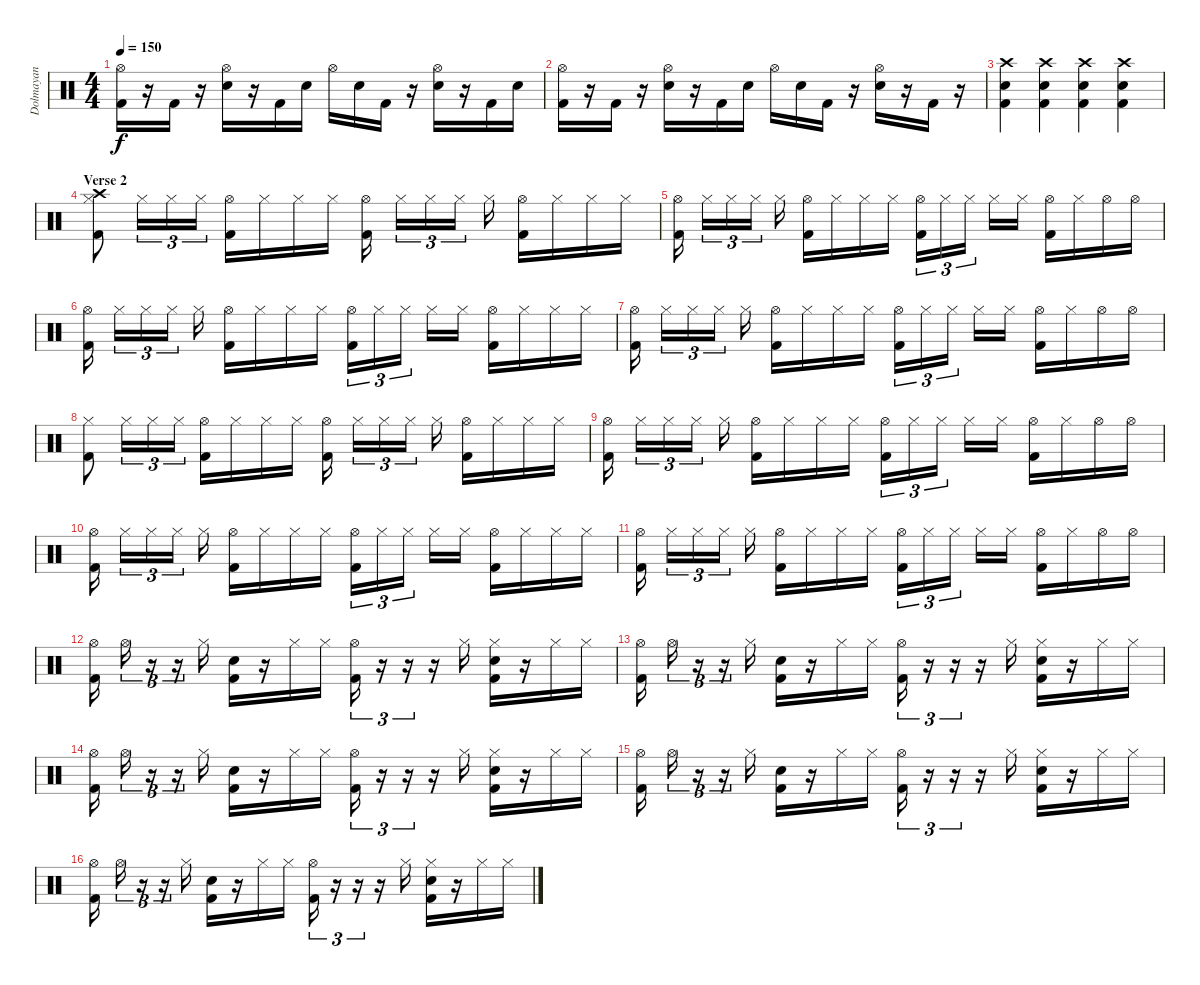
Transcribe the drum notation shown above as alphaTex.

\track ("Dolmayan" "Dolmayan") {instrument percussion}
\staff {score}
\articulation defaults
\ts (4 4)
\tempo 150
\clef neutral
\ks c
("Hi-Hat (open)" "Kick (hit) 2").16{dy f} r.16 "Kick (hit) 2".16 r.16 ("Hi-Hat (open)" "Electric Snare (hit)").16 r.16 "Kick (hit) 2".16 "Electric Snare (hit)".16 "Hi-Hat (open)".16 "Electric Snare (hit)".16 "Kick (hit) 2".16 r.16 ("Hi-Hat (open)" "Electric Snare (hit)").16 r.16 "Kick (hit) 2".16 "Electric Snare (hit)".16 |
("Hi-Hat (open)" "Kick (hit) 2").16 r.16 "Kick (hit) 2".16 r.16 ("Hi-Hat (open)" "Electric Snare (hit)").16 r.16 "Kick (hit) 2".16 "Electric Snare (hit)".16 "Hi-Hat (open)".16 "Electric Snare (hit)".16 "Kick (hit) 2".16 r.16 ("Hi-Hat (open)" "Electric Snare (hit)").16 r.16 "Kick (hit) 2".16 r.16 |
("Crash high (hit)" "Electric Snare (hit)" "Kick (hit) 2").4 ("Crash high (hit)" "Electric Snare (hit)" "Kick (hit) 2").4 ("Crash high (hit)" "Electric Snare (hit)" "Kick (hit) 2").4 ("Crash high (hit)" "Electric Snare (hit)" "Kick (hit) 2").4 |
\section ("" "Verse 2")
("Crash high (hit)" "Hi-Hat (closed)" "Kick (hit) 2").8 "Hi-Hat (closed)".16{tu (3 2)} "Hi-Hat (closed)".16{tu (3 2)} "Hi-Hat (closed)".16{tu (3 2)} ("Hi-Hat (open)" "Kick (hit) 2").16 "Hi-Hat (closed)".16 "Hi-Hat (closed)".16 "Hi-Hat (closed)".16 ("Hi-Hat (open)" "Kick (hit) 2").16 "Hi-Hat (closed)".16{tu (3 2)} "Hi-Hat (closed)".16{tu (3 2)} "Hi-Hat (closed)".16{tu (3 2)} "Hi-Hat (closed)".16 ("Hi-Hat (open)" "Kick (hit) 2").16 "Hi-Hat (closed)".16 "Hi-Hat (closed)".16 "Hi-Hat (closed)".16 |
("Hi-Hat (open)" "Kick (hit) 2").16 "Hi-Hat (closed)".16{tu (3 2)} "Hi-Hat (closed)".16{tu (3 2)} "Hi-Hat (closed)".16{tu (3 2)} "Hi-Hat (closed)".16 ("Hi-Hat (open)" "Kick (hit) 2").16 "Hi-Hat (closed)".16 "Hi-Hat (closed)".16 "Hi-Hat (closed)".16 ("Hi-Hat (open)" "Kick (hit) 2").16{tu (3 2)} "Hi-Hat (closed)".16{tu (3 2)} "Hi-Hat (closed)".16{tu (3 2)} "Hi-Hat (closed)".16 "Hi-Hat (closed)".16 ("Hi-Hat (open)" "Kick (hit) 2").16 "Hi-Hat (closed)".16 "Hi-Hat (open)".16 "Hi-Hat (open)".16 |
("Hi-Hat (open)" "Kick (hit) 2").16 "Hi-Hat (closed)".16{tu (3 2)} "Hi-Hat (closed)".16{tu (3 2)} "Hi-Hat (closed)".16{tu (3 2)} "Hi-Hat (closed)".16 ("Hi-Hat (open)" "Kick (hit) 2").16 "Hi-Hat (closed)".16 "Hi-Hat (closed)".16 "Hi-Hat (closed)".16 ("Hi-Hat (open)" "Kick (hit) 2").16{tu (3 2)} "Hi-Hat (closed)".16{tu (3 2)} "Hi-Hat (closed)".16{tu (3 2)} "Hi-Hat (closed)".16 "Hi-Hat (closed)".16 ("Hi-Hat (open)" "Kick (hit) 2").16 "Hi-Hat (closed)".16 "Hi-Hat (closed)".16 "Hi-Hat (closed)".16 |
("Hi-Hat (open)" "Kick (hit) 2").16 "Hi-Hat (closed)".16{tu (3 2)} "Hi-Hat (closed)".16{tu (3 2)} "Hi-Hat (closed)".16{tu (3 2)} "Hi-Hat (closed)".16 ("Hi-Hat (open)" "Kick (hit) 2").16 "Hi-Hat (closed)".16 "Hi-Hat (closed)".16 "Hi-Hat (closed)".16 ("Hi-Hat (open)" "Kick (hit) 2").16{tu (3 2)} "Hi-Hat (closed)".16{tu (3 2)} "Hi-Hat (closed)".16{tu (3 2)} "Hi-Hat (closed)".16 "Hi-Hat (closed)".16 ("Hi-Hat (open)" "Kick (hit) 2").16 "Hi-Hat (closed)".16 "Hi-Hat (open)".16 "Hi-Hat (open)".16 |
("Hi-Hat (closed)" "Kick (hit) 2").8 "Hi-Hat (closed)".16{tu (3 2)} "Hi-Hat (closed)".16{tu (3 2)} "Hi-Hat (closed)".16{tu (3 2)} ("Hi-Hat (open)" "Kick (hit) 2").16 "Hi-Hat (closed)".16 "Hi-Hat (closed)".16 "Hi-Hat (closed)".16 ("Hi-Hat (open)" "Kick (hit) 2").16 "Hi-Hat (closed)".16{tu (3 2)} "Hi-Hat (closed)".16{tu (3 2)} "Hi-Hat (closed)".16{tu (3 2)} "Hi-Hat (closed)".16 ("Hi-Hat (open)" "Kick (hit) 2").16 "Hi-Hat (closed)".16 "Hi-Hat (closed)".16 "Hi-Hat (closed)".16 |
("Hi-Hat (open)" "Kick (hit) 2").16 "Hi-Hat (closed)".16{tu (3 2)} "Hi-Hat (closed)".16{tu (3 2)} "Hi-Hat (closed)".16{tu (3 2)} "Hi-Hat (closed)".16 ("Hi-Hat (open)" "Kick (hit) 2").16 "Hi-Hat (closed)".16 "Hi-Hat (closed)".16 "Hi-Hat (closed)".16 ("Hi-Hat (open)" "Kick (hit) 2").16{tu (3 2)} "Hi-Hat (closed)".16{tu (3 2)} "Hi-Hat (closed)".16{tu (3 2)} "Hi-Hat (closed)".16 "Hi-Hat (closed)".16 ("Hi-Hat (open)" "Kick (hit) 2").16 "Hi-Hat (closed)".16 "Hi-Hat (open)".16 "Hi-Hat (open)".16 |
("Hi-Hat (open)" "Kick (hit) 2").16 "Hi-Hat (closed)".16{tu (3 2)} "Hi-Hat (closed)".16{tu (3 2)} "Hi-Hat (closed)".16{tu (3 2)} "Hi-Hat (closed)".16 ("Hi-Hat (open)" "Kick (hit) 2").16 "Hi-Hat (closed)".16 "Hi-Hat (closed)".16 "Hi-Hat (closed)".16 ("Hi-Hat (open)" "Kick (hit) 2").16{tu (3 2)} "Hi-Hat (closed)".16{tu (3 2)} "Hi-Hat (closed)".16{tu (3 2)} "Hi-Hat (closed)".16 "Hi-Hat (closed)".16 ("Hi-Hat (open)" "Kick (hit) 2").16 "Hi-Hat (closed)".16 "Hi-Hat (closed)".16 "Hi-Hat (closed)".16 |
("Hi-Hat (open)" "Kick (hit) 2").16 "Hi-Hat (closed)".16{tu (3 2)} "Hi-Hat (closed)".16{tu (3 2)} "Hi-Hat (closed)".16{tu (3 2)} "Hi-Hat (closed)".16 ("Hi-Hat (open)" "Kick (hit) 2").16 "Hi-Hat (closed)".16 "Hi-Hat (closed)".16 "Hi-Hat (closed)".16 ("Hi-Hat (open)" "Kick (hit) 2").16{tu (3 2)} "Hi-Hat (closed)".16{tu (3 2)} "Hi-Hat (closed)".16{tu (3 2)} "Hi-Hat (closed)".16 "Hi-Hat (closed)".16 ("Hi-Hat (open)" "Kick (hit) 2").16 "Hi-Hat (closed)".16 "Hi-Hat (open)".16 "Hi-Hat (open)".16 |
("Hi-Hat (open)" "Kick (hit) 2").16 "Hi-Hat (open)".16{tu (3 2)} r.16{tu (3 2)} r.16{tu (3 2)} "Hi-Hat (closed)".16 ("Electric Snare (hit)" "Kick (hit) 2").16 r.16 "Hi-Hat (closed)".16 "Hi-Hat (closed)".16 ("Hi-Hat (open)" "Kick (hit) 2").16{tu (3 2)} r.16{tu (3 2)} r.16{tu (3 2)} r.16 "Hi-Hat (closed)".16 ("Hi-Hat (closed)" "Electric Snare (hit)" "Kick (hit) 2").16 r.16 "Hi-Hat (closed)".16 "Hi-Hat (closed)".16 |
("Hi-Hat (open)" "Kick (hit) 2").16 "Hi-Hat (open)".16{tu (3 2)} r.16{tu (3 2)} r.16{tu (3 2)} "Hi-Hat (closed)".16 ("Electric Snare (hit)" "Kick (hit) 2").16 r.16 "Hi-Hat (closed)".16 "Hi-Hat (closed)".16 ("Hi-Hat (open)" "Kick (hit) 2").16{tu (3 2)} r.16{tu (3 2)} r.16{tu (3 2)} r.16 "Hi-Hat (closed)".16 ("Hi-Hat (closed)" "Electric Snare (hit)" "Kick (hit) 2").16 r.16 "Hi-Hat (closed)".16 "Hi-Hat (closed)".16 |
("Hi-Hat (open)" "Kick (hit) 2").16 "Hi-Hat (open)".16{tu (3 2)} r.16{tu (3 2)} r.16{tu (3 2)} "Hi-Hat (closed)".16 ("Electric Snare (hit)" "Kick (hit) 2").16 r.16 "Hi-Hat (closed)".16 "Hi-Hat (closed)".16 ("Hi-Hat (open)" "Kick (hit) 2").16{tu (3 2)} r.16{tu (3 2)} r.16{tu (3 2)} r.16 "Hi-Hat (closed)".16 ("Hi-Hat (closed)" "Electric Snare (hit)" "Kick (hit) 2").16 r.16 "Hi-Hat (closed)".16 "Hi-Hat (closed)".16 |
("Hi-Hat (open)" "Kick (hit) 2").16 "Hi-Hat (open)".16{tu (3 2)} r.16{tu (3 2)} r.16{tu (3 2)} "Hi-Hat (closed)".16 ("Electric Snare (hit)" "Kick (hit) 2").16 r.16 "Hi-Hat (closed)".16 "Hi-Hat (closed)".16 ("Hi-Hat (open)" "Kick (hit) 2").16{tu (3 2)} r.16{tu (3 2)} r.16{tu (3 2)} r.16 "Hi-Hat (closed)".16 ("Hi-Hat (closed)" "Electric Snare (hit)" "Kick (hit) 2").16 r.16 "Hi-Hat (closed)".16 "Hi-Hat (closed)".16 |
("Hi-Hat (open)" "Kick (hit) 2").16 "Hi-Hat (open)".16{tu (3 2)} r.16{tu (3 2)} r.16{tu (3 2)} "Hi-Hat (closed)".16 ("Electric Snare (hit)" "Kick (hit) 2").16 r.16 "Hi-Hat (closed)".16 "Hi-Hat (closed)".16 ("Hi-Hat (open)" "Kick (hit) 2").16{tu (3 2)} r.16{tu (3 2)} r.16{tu (3 2)} r.16 "Hi-Hat (closed)".16 ("Hi-Hat (closed)" "Electric Snare (hit)" "Kick (hit) 2").16 r.16 "Hi-Hat (closed)".16 "Hi-Hat (closed)".16
